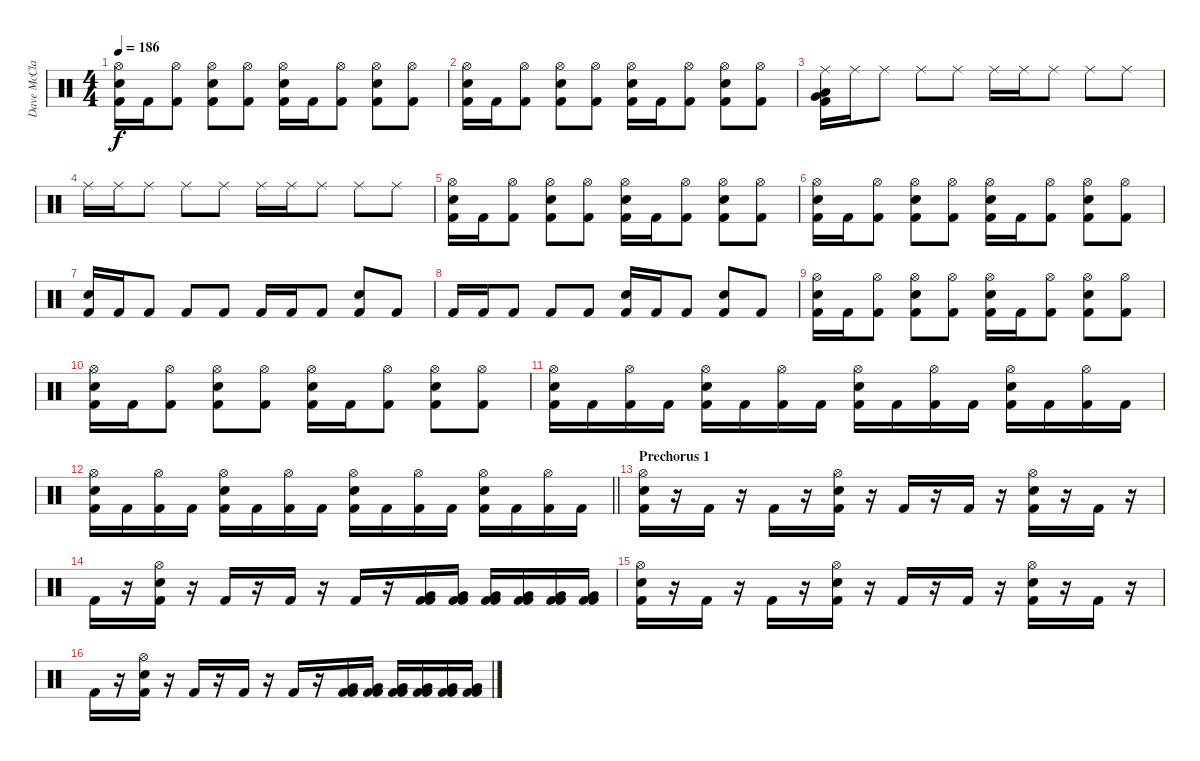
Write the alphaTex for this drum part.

\track ("Dave McClain" "Dave McCla") {instrument percussion}
\staff {score}
\articulation defaults
\ts (4 4)
\tempo 186
\clef neutral
\ks c
("Hi-Hat (open)" "Snare (hit) 2" "Kick (hit) 2").16{dy f} "Kick (hit) 2".16 ("Hi-Hat (open)" "Kick (hit) 2").8 ("Hi-Hat (open)" "Snare (hit) 2" "Kick (hit) 2").8 ("Hi-Hat (open)" "Kick (hit) 2").8 ("Hi-Hat (open)" "Snare (hit) 2" "Kick (hit) 2").16 "Kick (hit) 2".16 ("Hi-Hat (open)" "Kick (hit) 2").8 ("Hi-Hat (open)" "Snare (hit) 2" "Kick (hit) 2").8 ("Hi-Hat (open)" "Kick (hit) 2").8 |
("Hi-Hat (open)" "Snare (hit) 2" "Kick (hit) 2").16 "Kick (hit) 2".16 ("Hi-Hat (open)" "Kick (hit) 2").8 ("Hi-Hat (open)" "Snare (hit) 2" "Kick (hit) 2").8 ("Hi-Hat (open)" "Kick (hit) 2").8 ("Hi-Hat (open)" "Snare (hit) 2" "Kick (hit) 2").16 "Kick (hit) 2".16 ("Hi-Hat (open)" "Kick (hit) 2").8 ("Hi-Hat (open)" "Snare (hit) 2" "Kick (hit) 2").8 ("Hi-Hat (open)" "Kick (hit) 2").8 |
("Ride (middle)" "Low Floor Tom (hit)" "Very Low Tom (hit)" "Kick (hit) 2").16 "Ride (middle)".16 "Ride (middle)".8 "Ride (middle)".8 "Ride (middle)".8 "Ride (middle)".16 "Ride (middle)".16 "Ride (middle)".8 "Ride (middle)".8 "Ride (middle)".8 |
"Ride (middle)".16 "Ride (middle)".16 "Ride (middle)".8 "Ride (middle)".8 "Ride (middle)".8 "Ride (middle)".16 "Ride (middle)".16 "Ride (middle)".8 "Ride (middle)".8 "Ride (middle)".8 |
("Hi-Hat (open)" "Snare (hit) 2" "Kick (hit) 2").16 "Kick (hit) 2".16 ("Hi-Hat (open)" "Kick (hit) 2").8 ("Hi-Hat (open)" "Snare (hit) 2" "Kick (hit) 2").8 ("Hi-Hat (open)" "Kick (hit) 2").8 ("Hi-Hat (open)" "Snare (hit) 2" "Kick (hit) 2").16 "Kick (hit) 2".16 ("Hi-Hat (open)" "Kick (hit) 2").8 ("Hi-Hat (open)" "Snare (hit) 2" "Kick (hit) 2").8 ("Hi-Hat (open)" "Kick (hit) 2").8 |
("Hi-Hat (open)" "Snare (hit) 2" "Kick (hit) 2").16 "Kick (hit) 2".16 ("Hi-Hat (open)" "Kick (hit) 2").8 ("Hi-Hat (open)" "Snare (hit) 2" "Kick (hit) 2").8 ("Hi-Hat (open)" "Kick (hit) 2").8 ("Hi-Hat (open)" "Snare (hit) 2" "Kick (hit) 2").16 "Kick (hit) 2".16 ("Hi-Hat (open)" "Kick (hit) 2").8 ("Hi-Hat (open)" "Snare (hit) 2" "Kick (hit) 2").8 ("Hi-Hat (open)" "Kick (hit) 2").8 |
("Snare (hit) 2" "Kick (hit) 2").16 "Kick (hit) 2".16 "Kick (hit) 2".8 "Kick (hit) 2".8 "Kick (hit) 2".8 "Kick (hit) 2".16 "Kick (hit) 2".16 "Kick (hit) 2".8 ("Snare (hit) 2" "Kick (hit) 2").8 "Kick (hit) 2".8 |
"Kick (hit) 2".16 "Kick (hit) 2".16 "Kick (hit) 2".8 "Kick (hit) 2".8 "Kick (hit) 2".8 ("Snare (hit) 2" "Kick (hit) 2").16 "Kick (hit) 2".16 "Kick (hit) 2".8 ("Snare (hit) 2" "Kick (hit) 2").8 "Kick (hit) 2".8 |
("Hi-Hat (open)" "Snare (hit) 2" "Kick (hit) 2").16 "Kick (hit) 2".16 ("Hi-Hat (open)" "Kick (hit) 2").8 ("Hi-Hat (open)" "Snare (hit) 2" "Kick (hit) 2").8 ("Hi-Hat (open)" "Kick (hit) 2").8 ("Hi-Hat (open)" "Snare (hit) 2" "Kick (hit) 2").16 "Kick (hit) 2".16 ("Hi-Hat (open)" "Kick (hit) 2").8 ("Hi-Hat (open)" "Snare (hit) 2" "Kick (hit) 2").8 ("Hi-Hat (open)" "Kick (hit) 2").8 |
("Hi-Hat (open)" "Snare (hit) 2" "Kick (hit) 2").16 "Kick (hit) 2".16 ("Hi-Hat (open)" "Kick (hit) 2").8 ("Hi-Hat (open)" "Snare (hit) 2" "Kick (hit) 2").8 ("Hi-Hat (open)" "Kick (hit) 2").8 ("Hi-Hat (open)" "Snare (hit) 2" "Kick (hit) 2").16 "Kick (hit) 2".16 ("Hi-Hat (open)" "Kick (hit) 2").8 ("Hi-Hat (open)" "Snare (hit) 2" "Kick (hit) 2").8 ("Hi-Hat (open)" "Kick (hit) 2").8 |
("Hi-Hat (open)" "Snare (hit) 2" "Kick (hit) 2").16 "Kick (hit) 2".16 ("Hi-Hat (open)" "Kick (hit) 2").16 "Kick (hit) 2".16 ("Hi-Hat (open)" "Snare (hit) 2" "Kick (hit) 2").16 "Kick (hit) 2".16 ("Hi-Hat (open)" "Kick (hit) 2").16 "Kick (hit) 2".16 ("Hi-Hat (open)" "Snare (hit) 2" "Kick (hit) 2").16 "Kick (hit) 2".16 ("Hi-Hat (open)" "Kick (hit) 2").16 "Kick (hit) 2".16 ("Hi-Hat (open)" "Snare (hit) 2" "Kick (hit) 2").16 "Kick (hit) 2".16 ("Hi-Hat (open)" "Kick (hit) 2").16 "Kick (hit) 2".16 |
\barLineRight lightlight
("Hi-Hat (open)" "Snare (hit) 2" "Kick (hit) 2").16 "Kick (hit) 2".16 ("Hi-Hat (open)" "Kick (hit) 2").16 "Kick (hit) 2".16 ("Hi-Hat (open)" "Snare (hit) 2" "Kick (hit) 2").16 "Kick (hit) 2".16 ("Hi-Hat (open)" "Kick (hit) 2").16 "Kick (hit) 2".16 ("Hi-Hat (open)" "Snare (hit) 2" "Kick (hit) 2").16 "Kick (hit) 2".16 ("Hi-Hat (open)" "Kick (hit) 2").16 "Kick (hit) 2".16 ("Hi-Hat (open)" "Snare (hit) 2" "Kick (hit) 2").16 "Kick (hit) 2".16 ("Hi-Hat (open)" "Kick (hit) 2").16 "Kick (hit) 2".16 |
\section ("" "Prechorus 1")
("Hi-Hat (open)" "Snare (hit) 2" "Kick (hit) 2").16 r.16 "Kick (hit) 2".16 r.16 "Kick (hit) 2".16 r.16 ("Hi-Hat (open)" "Snare (hit) 2" "Kick (hit) 2").16 r.16 "Kick (hit) 2".16 r.16 "Kick (hit) 2".16 r.16 ("Hi-Hat (open)" "Snare (hit) 2" "Kick (hit) 2").16 r.16 "Kick (hit) 2".16 r.16 |
"Kick (hit) 2".16 r.16 ("Hi-Hat (open)" "Snare (hit) 2" "Kick (hit) 2").16 r.16 "Kick (hit) 2".16 r.16 "Kick (hit) 2".16 r.16 "Kick (hit) 2".16 r.16 ("Very Low Tom (hit)" "Kick (hit) 2" "Kick (hit) 2").16 ("Very Low Tom (hit)" "Kick (hit) 2" "Kick (hit) 2").16 ("Very Low Tom (hit)" "Kick (hit) 2" "Kick (hit) 2").16 ("Very Low Tom (hit)" "Kick (hit) 2" "Kick (hit) 2").16 ("Very Low Tom (hit)" "Kick (hit) 2" "Kick (hit) 2").16 ("Very Low Tom (hit)" "Kick (hit) 2" "Kick (hit) 2").16 |
("Hi-Hat (open)" "Snare (hit) 2" "Kick (hit) 2").16 r.16 "Kick (hit) 2".16 r.16 "Kick (hit) 2".16 r.16 ("Hi-Hat (open)" "Snare (hit) 2" "Kick (hit) 2").16 r.16 "Kick (hit) 2".16 r.16 "Kick (hit) 2".16 r.16 ("Hi-Hat (open)" "Snare (hit) 2" "Kick (hit) 2").16 r.16 "Kick (hit) 2".16 r.16 |
"Kick (hit) 2".16 r.16 ("Hi-Hat (open)" "Snare (hit) 2" "Kick (hit) 2").16 r.16 "Kick (hit) 2".16 r.16 "Kick (hit) 2".16 r.16 "Kick (hit) 2".16 r.16 ("Very Low Tom (hit)" "Kick (hit) 2" "Kick (hit) 2").16 ("Very Low Tom (hit)" "Kick (hit) 2" "Kick (hit) 2").16 ("Very Low Tom (hit)" "Kick (hit) 2" "Kick (hit) 2").16 ("Very Low Tom (hit)" "Kick (hit) 2" "Kick (hit) 2").16 ("Very Low Tom (hit)" "Kick (hit) 2" "Kick (hit) 2").16 ("Very Low Tom (hit)" "Kick (hit) 2" "Kick (hit) 2").16
